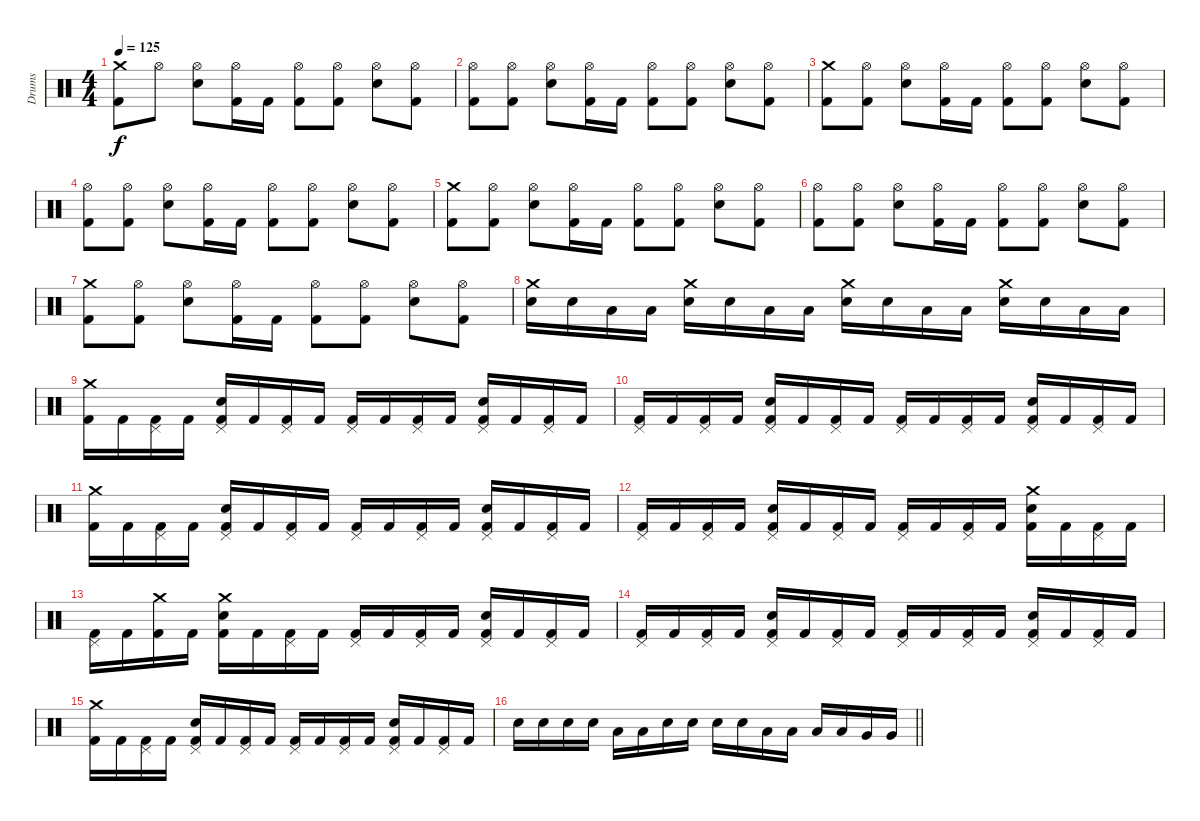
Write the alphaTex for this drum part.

\track ("Drums" "Drums") {instrument percussion}
\staff {score}
\articulation defaults
\ts (4 4)
\tempo 125
\clef neutral
\ks c
("Crash medium (hit)" "Kick (hit) 2").8{dy f} "Hi-Hat (open)".8 ("Hi-Hat (open)" "Electric Snare (hit)").8 ("Hi-Hat (open)" "Kick (hit) 2").16 "Kick (hit) 2".16 ("Hi-Hat (open)" "Kick (hit) 2").8 ("Hi-Hat (open)" "Kick (hit) 2").8 ("Hi-Hat (open)" "Electric Snare (hit)").8 ("Hi-Hat (open)" "Kick (hit) 2").8 |
("Hi-Hat (open)" "Kick (hit) 2").8 ("Hi-Hat (open)" "Kick (hit) 2").8 ("Hi-Hat (open)" "Electric Snare (hit)").8 ("Hi-Hat (open)" "Kick (hit) 2").16 "Kick (hit) 2".16 ("Hi-Hat (open)" "Kick (hit) 2").8 ("Hi-Hat (open)" "Kick (hit) 2").8 ("Hi-Hat (open)" "Electric Snare (hit)").8 ("Hi-Hat (open)" "Kick (hit) 2").8 |
("Crash medium (hit)" "Kick (hit) 2").8 ("Hi-Hat (open)" "Kick (hit) 2").8 ("Hi-Hat (open)" "Electric Snare (hit)").8 ("Hi-Hat (open)" "Kick (hit) 2").16 "Kick (hit) 2".16 ("Hi-Hat (open)" "Kick (hit) 2").8 ("Hi-Hat (open)" "Kick (hit) 2").8 ("Hi-Hat (open)" "Electric Snare (hit)").8 ("Hi-Hat (open)" "Kick (hit) 2").8 |
("Hi-Hat (open)" "Kick (hit) 2").8 ("Hi-Hat (open)" "Kick (hit) 2").8 ("Hi-Hat (open)" "Electric Snare (hit)").8 ("Hi-Hat (open)" "Kick (hit) 2").16 "Kick (hit) 2".16 ("Hi-Hat (open)" "Kick (hit) 2").8 ("Hi-Hat (open)" "Kick (hit) 2").8 ("Hi-Hat (open)" "Electric Snare (hit)").8 ("Hi-Hat (open)" "Kick (hit) 2").8 |
("Crash medium (hit)" "Kick (hit) 2").8 ("Hi-Hat (open)" "Kick (hit) 2").8 ("Hi-Hat (open)" "Electric Snare (hit)").8 ("Hi-Hat (open)" "Kick (hit) 2").16 "Kick (hit) 2".16 ("Hi-Hat (open)" "Kick (hit) 2").8 ("Hi-Hat (open)" "Kick (hit) 2").8 ("Hi-Hat (open)" "Electric Snare (hit)").8 ("Hi-Hat (open)" "Kick (hit) 2").8 |
("Hi-Hat (open)" "Kick (hit) 2").8 ("Hi-Hat (open)" "Kick (hit) 2").8 ("Hi-Hat (open)" "Electric Snare (hit)").8 ("Hi-Hat (open)" "Kick (hit) 2").16 "Kick (hit) 2".16 ("Hi-Hat (open)" "Kick (hit) 2").8 ("Hi-Hat (open)" "Kick (hit) 2").8 ("Hi-Hat (open)" "Electric Snare (hit)").8 ("Hi-Hat (open)" "Kick (hit) 2").8 |
("Crash medium (hit)" "Kick (hit) 2").8 ("Hi-Hat (open)" "Kick (hit) 2").8 ("Hi-Hat (open)" "Electric Snare (hit)").8 ("Hi-Hat (open)" "Kick (hit) 2").16 "Kick (hit) 2".16 ("Hi-Hat (open)" "Kick (hit) 2").8 ("Hi-Hat (open)" "Kick (hit) 2").8 ("Hi-Hat (open)" "Electric Snare (hit)").8 ("Hi-Hat (open)" "Kick (hit) 2").8 |
("Crash medium (hit)" "Electric Snare (hit)").16 "Electric Snare (hit)".16 "Low Tom (hit)".16 "Low Tom (hit)".16 ("Crash medium (hit)" "Electric Snare (hit)").16 "Electric Snare (hit)".16 "Low Tom (hit)".16 "Low Tom (hit)".16 ("Crash medium (hit)" "Electric Snare (hit)").16 "Electric Snare (hit)".16 "Low Tom (hit)".16 "Low Tom (hit)".16 ("Crash medium (hit)" "Electric Snare (hit)").16 "Electric Snare (hit)".16 "Low Tom (hit)".16 "Low Tom (hit)".16 |
("Crash medium (hit)" "Kick (hit) 2").16 "Kick (hit) 2".16 ("Pedal Hi-Hat (hit)" "Kick (hit) 2").16 "Kick (hit) 2".16 ("Pedal Hi-Hat (hit)" "Electric Snare (hit)" "Kick (hit) 2").16 "Kick (hit) 2".16 ("Pedal Hi-Hat (hit)" "Kick (hit) 2").16 "Kick (hit) 2".16 ("Pedal Hi-Hat (hit)" "Kick (hit) 2").16 "Kick (hit) 2".16 ("Pedal Hi-Hat (hit)" "Kick (hit) 2").16 "Kick (hit) 2".16 ("Pedal Hi-Hat (hit)" "Electric Snare (hit)" "Kick (hit) 2").16 "Kick (hit) 2".16 ("Pedal Hi-Hat (hit)" "Kick (hit) 2").16 "Kick (hit) 2".16 |
("Pedal Hi-Hat (hit)" "Kick (hit) 2").16 "Kick (hit) 2".16 ("Pedal Hi-Hat (hit)" "Kick (hit) 2").16 "Kick (hit) 2".16 ("Pedal Hi-Hat (hit)" "Electric Snare (hit)" "Kick (hit) 2").16 "Kick (hit) 2".16 ("Pedal Hi-Hat (hit)" "Kick (hit) 2").16 "Kick (hit) 2".16 ("Pedal Hi-Hat (hit)" "Kick (hit) 2").16 "Kick (hit) 2".16 ("Pedal Hi-Hat (hit)" "Kick (hit) 2").16 "Kick (hit) 2".16 ("Pedal Hi-Hat (hit)" "Electric Snare (hit)" "Kick (hit) 2").16 "Kick (hit) 2".16 ("Pedal Hi-Hat (hit)" "Kick (hit) 2").16 "Kick (hit) 2".16 |
("Crash medium (hit)" "Kick (hit) 2").16 "Kick (hit) 2".16 ("Pedal Hi-Hat (hit)" "Kick (hit) 2").16 "Kick (hit) 2".16 ("Pedal Hi-Hat (hit)" "Electric Snare (hit)" "Kick (hit) 2").16 "Kick (hit) 2".16 ("Pedal Hi-Hat (hit)" "Kick (hit) 2").16 "Kick (hit) 2".16 ("Pedal Hi-Hat (hit)" "Kick (hit) 2").16 "Kick (hit) 2".16 ("Pedal Hi-Hat (hit)" "Kick (hit) 2").16 "Kick (hit) 2".16 ("Pedal Hi-Hat (hit)" "Electric Snare (hit)" "Kick (hit) 2").16 "Kick (hit) 2".16 ("Pedal Hi-Hat (hit)" "Kick (hit) 2").16 "Kick (hit) 2".16 |
("Pedal Hi-Hat (hit)" "Kick (hit) 2").16 "Kick (hit) 2".16 ("Pedal Hi-Hat (hit)" "Kick (hit) 2").16 "Kick (hit) 2".16 ("Pedal Hi-Hat (hit)" "Electric Snare (hit)" "Kick (hit) 2").16 "Kick (hit) 2".16 ("Pedal Hi-Hat (hit)" "Kick (hit) 2").16 "Kick (hit) 2".16 ("Pedal Hi-Hat (hit)" "Kick (hit) 2").16 "Kick (hit) 2".16 ("Pedal Hi-Hat (hit)" "Kick (hit) 2").16 "Kick (hit) 2".16 ("Crash medium (hit)" "Electric Snare (hit)" "Kick (hit) 2").16 "Kick (hit) 2".16 ("Pedal Hi-Hat (hit)" "Kick (hit) 2").16 "Kick (hit) 2".16 |
("Pedal Hi-Hat (hit)" "Kick (hit) 2").16 "Kick (hit) 2".16 ("Crash medium (hit)" "Kick (hit) 2").16 "Kick (hit) 2".16 ("Crash medium (hit)" "Electric Snare (hit)" "Kick (hit) 2").16 "Kick (hit) 2".16 ("Pedal Hi-Hat (hit)" "Kick (hit) 2").16 "Kick (hit) 2".16 ("Pedal Hi-Hat (hit)" "Kick (hit) 2").16 "Kick (hit) 2".16 ("Pedal Hi-Hat (hit)" "Kick (hit) 2").16 "Kick (hit) 2".16 ("Pedal Hi-Hat (hit)" "Electric Snare (hit)" "Kick (hit) 2").16 "Kick (hit) 2".16 ("Pedal Hi-Hat (hit)" "Kick (hit) 2").16 "Kick (hit) 2".16 |
("Pedal Hi-Hat (hit)" "Kick (hit) 2").16 "Kick (hit) 2".16 ("Pedal Hi-Hat (hit)" "Kick (hit) 2").16 "Kick (hit) 2".16 ("Pedal Hi-Hat (hit)" "Electric Snare (hit)" "Kick (hit) 2").16 "Kick (hit) 2".16 ("Pedal Hi-Hat (hit)" "Kick (hit) 2").16 "Kick (hit) 2".16 ("Pedal Hi-Hat (hit)" "Kick (hit) 2").16 "Kick (hit) 2".16 ("Pedal Hi-Hat (hit)" "Kick (hit) 2").16 "Kick (hit) 2".16 ("Pedal Hi-Hat (hit)" "Electric Snare (hit)" "Kick (hit) 2").16 "Kick (hit) 2".16 ("Pedal Hi-Hat (hit)" "Kick (hit) 2").16 "Kick (hit) 2".16 |
("Crash medium (hit)" "Kick (hit) 2").16 "Kick (hit) 2".16 ("Pedal Hi-Hat (hit)" "Kick (hit) 2").16 "Kick (hit) 2".16 ("Pedal Hi-Hat (hit)" "Electric Snare (hit)" "Kick (hit) 2").16 "Kick (hit) 2".16 ("Pedal Hi-Hat (hit)" "Kick (hit) 2").16 "Kick (hit) 2".16 ("Pedal Hi-Hat (hit)" "Kick (hit) 2").16 "Kick (hit) 2".16 ("Pedal Hi-Hat (hit)" "Kick (hit) 2").16 "Kick (hit) 2".16 ("Pedal Hi-Hat (hit)" "Electric Snare (hit)" "Kick (hit) 2").16 "Kick (hit) 2".16 ("Pedal Hi-Hat (hit)" "Kick (hit) 2").16 "Kick (hit) 2".16 |
\barLineRight lightlight "Electric Snare (hit)".16 "Electric Snare (hit)".16 "Electric Snare (hit)".16 "Electric Snare (hit)".16 "Low Tom (hit)".16 "Low Tom (hit)".16 "Electric Snare (hit)".16 "Electric Snare (hit)".16 "Electric Snare (hit)".16 "Electric Snare (hit)".16 "Low Tom (hit)".16 "Low Tom (hit)".16 "Low Tom (hit)".16 "Low Tom (hit)".16 "Very Low Tom (hit)".16 "Very Low Tom (hit)".16
